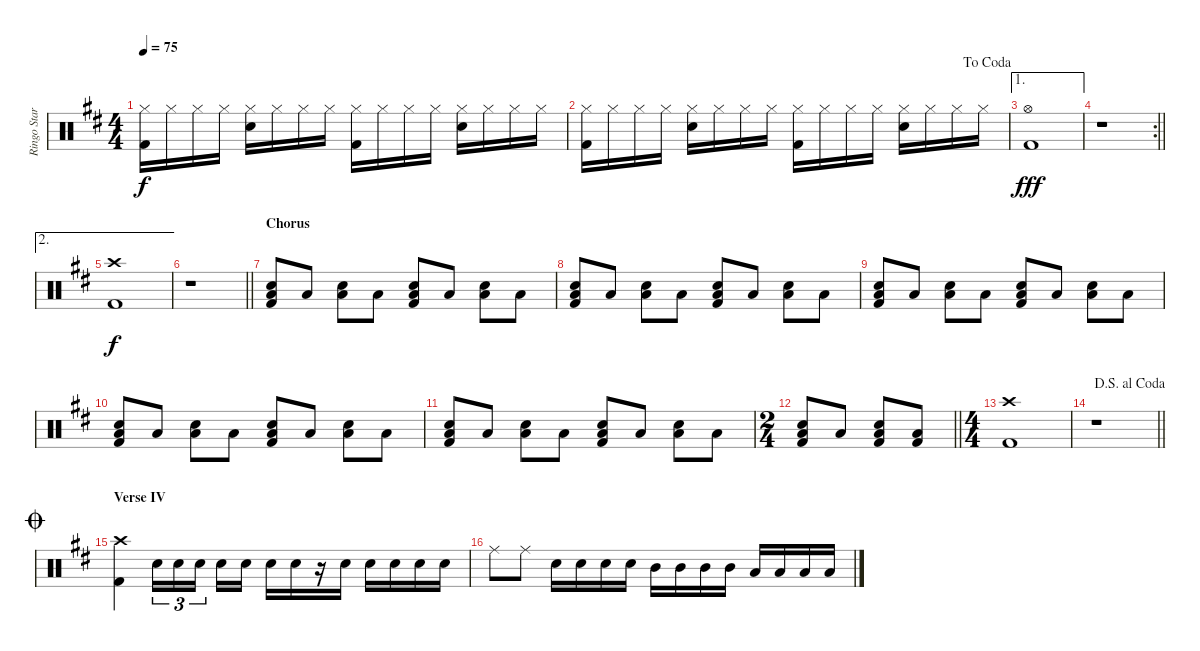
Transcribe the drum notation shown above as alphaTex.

\track ("Ringo Star' drums" "Ringo Star") {instrument percussion}
\staff {score}
\articulation defaults
\ts (4 4)
\tempo 75
\clef neutral
\ks d
("Hi-Hat (closed)" "Kick (hit) 2").16{dy f} "Hi-Hat (closed)".16 "Hi-Hat (closed)".16 "Hi-Hat (closed)".16 ("Hi-Hat (closed)" "Snare (hit) 2").16 "Hi-Hat (closed)".16 "Hi-Hat (closed)".16 "Hi-Hat (closed)".16 ("Hi-Hat (closed)" "Kick (hit) 2").16 "Hi-Hat (closed)".16 "Hi-Hat (closed)".16 "Hi-Hat (closed)".16 ("Hi-Hat (closed)" "Snare (hit) 2").16 "Hi-Hat (closed)".16 "Hi-Hat (closed)".16 "Hi-Hat (closed)".16 |
\jump dacoda
("Hi-Hat (closed)" "Kick (hit) 2").16 "Hi-Hat (closed)".16 "Hi-Hat (closed)".16 "Hi-Hat (closed)".16 ("Hi-Hat (closed)" "Snare (hit) 2").16 "Hi-Hat (closed)".16 "Hi-Hat (closed)".16 "Hi-Hat (closed)".16 ("Hi-Hat (closed)" "Kick (hit) 2").16 "Hi-Hat (closed)".16 "Hi-Hat (closed)".16 "Hi-Hat (closed)".16 ("Hi-Hat (closed)" "Snare (hit) 2").16 "Hi-Hat (closed)".16 "Hi-Hat (closed)".16 "Hi-Hat (closed)".16 |
\ae 1
("Hi-Hat (open)" "Kick (hit) 2").1{dy fff} |
\rc 2
\barLineRight lightlight
r.1 |
\ae 2
("Crash high (hit)" "Kick (hit) 2").1{dy f} |
\barLineRight lightlight
r.1 |
\section ("" "Chorus")
("Snare (hit) 2" "Low Floor Tom (hit)" "Kick (hit) 2").8 "Low Floor Tom (hit)".8 ("Snare (hit) 2" "Low Floor Tom (hit)").8 "Low Floor Tom (hit)".8 ("Snare (hit) 2" "Low Floor Tom (hit)" "Kick (hit) 2").8 "Low Floor Tom (hit)".8 ("Snare (hit) 2" "Low Floor Tom (hit)").8 "Low Floor Tom (hit)".8 |
("Snare (hit) 2" "Low Floor Tom (hit)" "Kick (hit) 2").8 "Low Floor Tom (hit)".8 ("Snare (hit) 2" "Low Floor Tom (hit)").8 "Low Floor Tom (hit)".8 ("Snare (hit) 2" "Low Floor Tom (hit)" "Kick (hit) 2").8 "Low Floor Tom (hit)".8 ("Snare (hit) 2" "Low Floor Tom (hit)").8 "Low Floor Tom (hit)".8 |
("Snare (hit) 2" "Low Floor Tom (hit)" "Kick (hit) 2").8 "Low Floor Tom (hit)".8 ("Snare (hit) 2" "Low Floor Tom (hit)").8 "Low Floor Tom (hit)".8 ("Snare (hit) 2" "Low Floor Tom (hit)" "Kick (hit) 2").8 "Low Floor Tom (hit)".8 ("Snare (hit) 2" "Low Floor Tom (hit)").8 "Low Floor Tom (hit)".8 |
("Snare (hit) 2" "Low Floor Tom (hit)" "Kick (hit) 2").8 "Low Floor Tom (hit)".8 ("Snare (hit) 2" "Low Floor Tom (hit)").8 "Low Floor Tom (hit)".8 ("Snare (hit) 2" "Low Floor Tom (hit)" "Kick (hit) 2").8 "Low Floor Tom (hit)".8 ("Snare (hit) 2" "Low Floor Tom (hit)").8 "Low Floor Tom (hit)".8 |
("Snare (hit) 2" "Low Floor Tom (hit)" "Kick (hit) 2").8 "Low Floor Tom (hit)".8 ("Snare (hit) 2" "Low Floor Tom (hit)").8 "Low Floor Tom (hit)".8 ("Snare (hit) 2" "Low Floor Tom (hit)" "Kick (hit) 2").8 "Low Floor Tom (hit)".8 ("Snare (hit) 2" "Low Floor Tom (hit)").8 "Low Floor Tom (hit)".8 |
\ts (2 4)
\barLineRight lightlight
("Snare (hit) 2" "Low Floor Tom (hit)" "Kick (hit) 2").8 "Low Floor Tom (hit)".8 ("Snare (hit) 2" "Low Floor Tom (hit)" "Kick (hit) 2").8 ("Low Floor Tom (hit)" "Kick (hit) 2").8 |
\ts (4 4)
("Crash high (hit)" "Kick (hit) 2").1 |
\jump dalsegnoalcoda
\barLineRight lightlight
r.1 |
\section ("" "Verse IV")
\jump coda
("Crash high (hit)" "Kick (hit) 2").4 "Snare (hit) 2".16{tu (3 2)} "Snare (hit) 2".16{tu (3 2)} "Snare (hit) 2".16{tu (3 2) beam splitsecondary} "Snare (hit) 2".16 "Snare (hit) 2".16 "Snare (hit) 2".16 "Snare (hit) 2".16 r.16 "Snare (hit) 2".16 "Snare (hit) 2".16 "Snare (hit) 2".16 "Snare (hit) 2".16 "Snare (hit) 2".16 |
"Ride (middle)".8 "Ride (middle)".8 "Snare (hit) 2".16 "Snare (hit) 2".16 "Snare (hit) 2".16 "Snare (hit) 2".16 "Mid Tom (hit)".16 "Mid Tom (hit)".16 "Mid Tom (hit)".16 "Mid Tom (hit)".16 "Low Tom (hit)".16 "Low Tom (hit)".16 "Low Tom (hit)".16 "Low Tom (hit)".16
